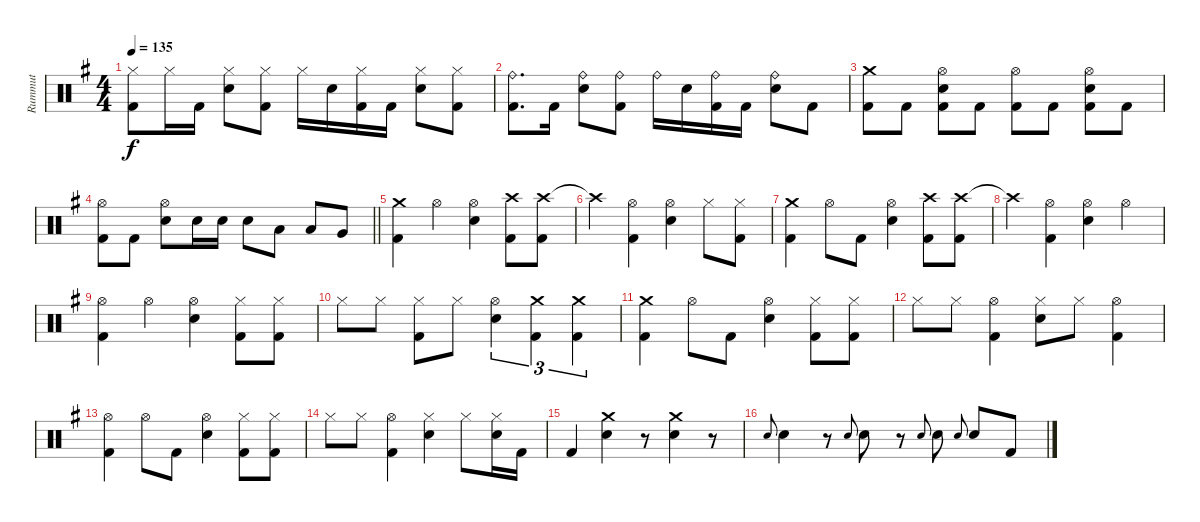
\track ("Rummut" "Rummut") {instrument percussion}
\staff {score}
\articulation defaults
\ts (4 4)
\tempo 135
\clef neutral
\ks g
("Hi-Hat (closed)" "Kick (hit) 2").8{dy f} "Hi-Hat (closed)".16 "Kick (hit) 2".16 ("Hi-Hat (closed)" "Snare (hit) 2").8 ("Hi-Hat (closed)" "Kick (hit) 2").8 "Hi-Hat (closed)".16 "Snare (hit) 2".16 ("Hi-Hat (closed)" "Kick (hit) 2").16 "Kick (hit) 2".16 ("Hi-Hat (closed)" "Snare (hit) 2").8 ("Hi-Hat (closed)" "Kick (hit) 2").8 |
("Ride (bell)" "Kick (hit) 2").8{d} "Kick (hit) 2".16 ("Ride (bell)" "Snare (hit) 2").8 ("Ride (bell)" "Kick (hit) 2").8 "Ride (bell)".16 "Snare (hit) 2".16 ("Ride (bell)" "Kick (hit) 2").16 "Kick (hit) 2".16 ("Ride (bell)" "Snare (hit) 2").8 "Kick (hit) 2".8 |
("Crash medium (hit)" "Kick (hit) 2").8 "Kick (hit) 2".8 ("Hi-Hat (open)" "Snare (hit) 2" "Kick (hit) 2").8 "Kick (hit) 2".8 ("Hi-Hat (open)" "Kick (hit) 2").8 "Kick (hit) 2".8 ("Hi-Hat (open)" "Snare (hit) 2" "Kick (hit) 2").8 "Kick (hit) 2".8 |
\barLineRight lightlight
("Hi-Hat (open)" "Kick (hit) 2").8 "Kick (hit) 2".8 ("Hi-Hat (open)" "Snare (hit) 2").8 "Snare (hit) 2".16 "Snare (hit) 2".16 "Snare (hit) 2".8 "Low Tom (hit)".8 "Low Tom (hit)".8 "Very Low Tom (hit)".8 |
("Crash medium (hit)" "Kick (hit) 2").4 "Hi-Hat (open)".4 ("Hi-Hat (open)" "Snare (hit) 2").4 ("Crash high (hit)" "Kick (hit) 2").8 ("Crash high (hit)" "Kick (hit) 2").8 |
"Crash high (hit)"{t}.4 ("Hi-Hat (open)" "Kick (hit) 2").4 ("Hi-Hat (open)" "Snare (hit) 2").4 "Hi-Hat (closed)".8 ("Hi-Hat (closed)" "Kick (hit) 2").8 |
("Crash medium (hit)" "Kick (hit) 2").4 "Hi-Hat (open)".8 "Kick (hit) 2".8 ("Hi-Hat (open)" "Snare (hit) 2").4 ("Crash high (hit)" "Kick (hit) 2").8 ("Crash high (hit)" "Kick (hit) 2").8 |
"Crash high (hit)"{t}.4 ("Hi-Hat (open)" "Kick (hit) 2").4 ("Hi-Hat (open)" "Snare (hit) 2").4 "Hi-Hat (open)".4 |
("Hi-Hat (open)" "Kick (hit) 2").4 "Hi-Hat (open)".4 ("Hi-Hat (open)" "Snare (hit) 2").4 ("Hi-Hat (closed)" "Kick (hit) 2").8 ("Hi-Hat (closed)" "Kick (hit) 2").8 |
"Hi-Hat (closed)".8 "Hi-Hat (closed)".8 ("Hi-Hat (closed)" "Kick (hit) 2").8 "Hi-Hat (closed)".8 ("Hi-Hat (open)" "Snare (hit) 2").4{tu (3 2)} ("Crash medium (hit)" "Kick (hit) 2").4{tu (3 2)} ("Crash medium (hit)" "Kick (hit) 2").4{tu (3 2)} |
("Crash medium (hit)" "Kick (hit) 2").4 "Hi-Hat (open)".8 "Kick (hit) 2".8 ("Hi-Hat (open)" "Snare (hit) 2").4 ("Hi-Hat (closed)" "Kick (hit) 2").8 ("Hi-Hat (closed)" "Kick (hit) 2").8 |
"Hi-Hat (closed)".8 "Hi-Hat (closed)".8 ("Hi-Hat (open)" "Kick (hit) 2").4 ("Hi-Hat (closed)" "Snare (hit) 2").8 "Hi-Hat (closed)".8 ("Hi-Hat (open)" "Kick (hit) 2").4 |
("Hi-Hat (open)" "Kick (hit) 2").4 "Hi-Hat (open)".8 "Kick (hit) 2".8 ("Hi-Hat (open)" "Snare (hit) 2").4 ("Hi-Hat (closed)" "Kick (hit) 2").8 ("Hi-Hat (closed)" "Kick (hit) 2").8 |
"Hi-Hat (closed)".8 "Hi-Hat (closed)".8 ("Hi-Hat (open)" "Kick (hit) 2").4 ("Hi-Hat (closed)" "Snare (hit) 2").4 "Hi-Hat (closed)".8 ("Hi-Hat (closed)" "Snare (hit) 2").16 "Kick (hit) 2".16 |
"Kick (hit) 2".4 ("Crash medium (hit)" "Snare (hit) 2").4 r.8 ("Crash medium (hit)" "Snare (hit) 2").4 r.8 |
"Snare (hit) 2".8{gr onbeat} "Snare (hit) 2".4 r.8 "Snare (hit) 2".8{gr onbeat} "Snare (hit) 2".8 r.8 "Snare (hit) 2".8{gr onbeat} "Snare (hit) 2".8 "Snare (hit) 2".8{gr onbeat} "Snare (hit) 2".8 "Kick (hit) 2".8
